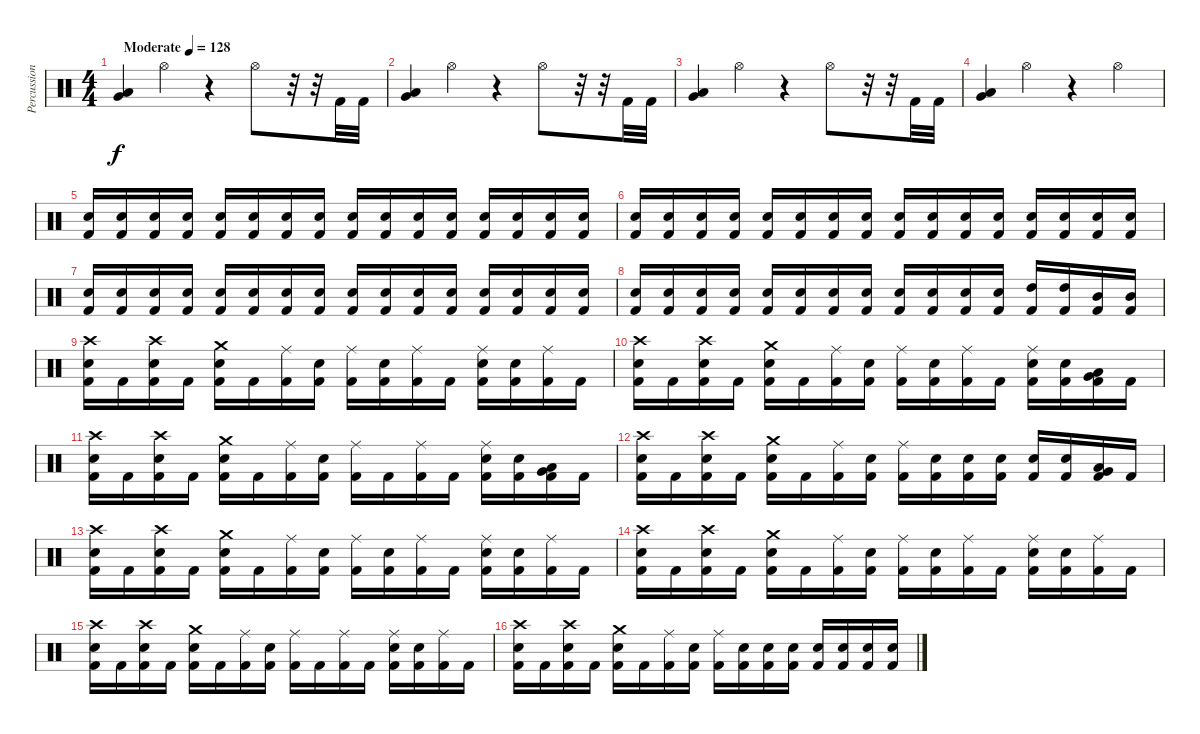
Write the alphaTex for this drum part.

\track ("Percussion" "Percussion") {instrument percussion}
\staff {score}
\articulation defaults
\ts (4 4)
\tempo (128 "Moderate")
\clef neutral
\ks c
("Low Tom (hit)" "Very Low Tom (hit)").4{dy f} "Hi-Hat (open)".4 r.4 "Hi-Hat (open)".8 r.32 r.32 "Kick (hit) 2".32 "Kick (hit) 2".32 |
("Low Tom (hit)" "Very Low Tom (hit)").4 "Hi-Hat (open)".4 r.4 "Hi-Hat (open)".8 r.32 r.32 "Kick (hit) 2".32 "Kick (hit) 2".32 |
("Low Tom (hit)" "Very Low Tom (hit)").4 "Hi-Hat (open)".4 r.4 "Hi-Hat (open)".8 r.32 r.32 "Kick (hit) 2".32 "Kick (hit) 2".32 |
("Low Tom (hit)" "Very Low Tom (hit)").4 "Hi-Hat (open)".4 r.4 "Hi-Hat (open)".4 |
("Snare (hit) 2" "Kick (hit) 2").16{volume 8} ("Snare (hit) 2" "Kick (hit) 2").16 ("Snare (hit) 2" "Kick (hit) 2").16 ("Snare (hit) 2" "Kick (hit) 2").16 ("Snare (hit) 2" "Kick (hit) 2").16 ("Snare (hit) 2" "Kick (hit) 2").16 ("Snare (hit) 2" "Kick (hit) 2").16 ("Snare (hit) 2" "Kick (hit) 2").16 ("Snare (hit) 2" "Kick (hit) 2").16 ("Snare (hit) 2" "Kick (hit) 2").16 ("Snare (hit) 2" "Kick (hit) 2").16{volume 9} ("Snare (hit) 2" "Kick (hit) 2").16 ("Snare (hit) 2" "Kick (hit) 2").16 ("Snare (hit) 2" "Kick (hit) 2").16 ("Snare (hit) 2" "Kick (hit) 2").16 ("Snare (hit) 2" "Kick (hit) 2").16 |
("Snare (hit) 2" "Kick (hit) 2").16 ("Snare (hit) 2" "Kick (hit) 2").16 ("Snare (hit) 2" "Kick (hit) 2").16 ("Snare (hit) 2" "Kick (hit) 2").16 ("Snare (hit) 2" "Kick (hit) 2").16{volume 10} ("Snare (hit) 2" "Kick (hit) 2").16 ("Snare (hit) 2" "Kick (hit) 2").16 ("Snare (hit) 2" "Kick (hit) 2").16 ("Snare (hit) 2" "Kick (hit) 2").16 ("Snare (hit) 2" "Kick (hit) 2").16 ("Snare (hit) 2" "Kick (hit) 2").16 ("Snare (hit) 2" "Kick (hit) 2").16 ("Snare (hit) 2" "Kick (hit) 2").16 ("Snare (hit) 2" "Kick (hit) 2").16 ("Snare (hit) 2" "Kick (hit) 2").16{volume 11} ("Snare (hit) 2" "Kick (hit) 2").16 |
("Snare (hit) 2" "Kick (hit) 2").16 ("Snare (hit) 2" "Kick (hit) 2").16 ("Snare (hit) 2" "Kick (hit) 2").16 ("Snare (hit) 2" "Kick (hit) 2").16 ("Snare (hit) 2" "Kick (hit) 2").16 ("Snare (hit) 2" "Kick (hit) 2").16 ("Snare (hit) 2" "Kick (hit) 2").16 ("Snare (hit) 2" "Kick (hit) 2").16 ("Snare (hit) 2" "Kick (hit) 2").16{volume 13} ("Snare (hit) 2" "Kick (hit) 2").16 ("Snare (hit) 2" "Kick (hit) 2").16 ("Snare (hit) 2" "Kick (hit) 2").16 ("Snare (hit) 2" "Kick (hit) 2").16 ("Snare (hit) 2" "Kick (hit) 2").16 ("Snare (hit) 2" "Kick (hit) 2").16 ("Snare (hit) 2" "Kick (hit) 2").16 |
("Snare (hit) 2" "Kick (hit) 2").16{volume 16} ("Snare (hit) 2" "Kick (hit) 2").16 ("Snare (hit) 2" "Kick (hit) 2").16 ("Snare (hit) 2" "Kick (hit) 2").16 ("Snare (hit) 2" "Kick (hit) 2").16 ("Snare (hit) 2" "Kick (hit) 2").16 ("Snare (hit) 2" "Kick (hit) 2").16 ("Snare (hit) 2" "Kick (hit) 2").16 ("Snare (hit) 2" "Kick (hit) 2").16 ("Snare (hit) 2" "Kick (hit) 2").16 ("Snare (hit) 2" "Kick (hit) 2").16 ("Snare (hit) 2" "Kick (hit) 2").16 ("High Tom (hit)" "Kick (hit) 2").16 ("High Tom (hit)" "Kick (hit) 2").16 ("Mid Tom (hit)" "Kick (hit) 2").16 ("Mid Tom (hit)" "Kick (hit) 2").16 |
("Crash high (hit)" "Snare (hit) 2" "Kick (hit) 2").16 "Kick (hit) 2".16 ("Crash high (hit)" "Snare (hit) 2" "Kick (hit) 2").16 "Kick (hit) 2".16 ("Crash medium (hit)" "Snare (hit) 2" "Kick (hit) 2").16 "Kick (hit) 2".16 ("Ride (middle)" "Kick (hit) 2").16 ("Snare (hit) 2" "Kick (hit) 2").16 ("Ride (middle)" "Kick (hit) 2").16 ("Snare (hit) 2" "Kick (hit) 2").16 ("Ride (middle)" "Kick (hit) 2").16 "Kick (hit) 2".16 ("Ride (middle)" "Snare (hit) 2" "Kick (hit) 2").16 ("Snare (hit) 2" "Kick (hit) 2").16 ("Ride (middle)" "Kick (hit) 2").16 "Kick (hit) 2".16 |
("Crash high (hit)" "Snare (hit) 2" "Kick (hit) 2").16 "Kick (hit) 2".16 ("Crash high (hit)" "Snare (hit) 2" "Kick (hit) 2").16 "Kick (hit) 2".16 ("Crash medium (hit)" "Snare (hit) 2" "Kick (hit) 2").16 "Kick (hit) 2".16 ("Ride (middle)" "Kick (hit) 2").16 ("Snare (hit) 2" "Kick (hit) 2").16 ("Ride (middle)" "Kick (hit) 2").16 ("Snare (hit) 2" "Kick (hit) 2").16 ("Ride (middle)" "Kick (hit) 2").16 "Kick (hit) 2".16 ("Ride (middle)" "Snare (hit) 2" "Kick (hit) 2").16 ("Snare (hit) 2" "Kick (hit) 2").16 ("Very Low Tom (hit)" "Low Tom (hit)" "Kick (hit) 2").16 "Kick (hit) 2".16 |
("Crash high (hit)" "Snare (hit) 2" "Kick (hit) 2").16 "Kick (hit) 2".16 ("Crash high (hit)" "Snare (hit) 2" "Kick (hit) 2").16 "Kick (hit) 2".16 ("Crash medium (hit)" "Snare (hit) 2" "Kick (hit) 2").16 "Kick (hit) 2".16 ("Ride (middle)" "Kick (hit) 2").16 ("Snare (hit) 2" "Kick (hit) 2").16 ("Ride (middle)" "Kick (hit) 2").16 "Kick (hit) 2".16 ("Ride (middle)" "Kick (hit) 2").16 "Kick (hit) 2".16 ("Ride (middle)" "Snare (hit) 2" "Kick (hit) 2").16 ("Snare (hit) 2" "Kick (hit) 2").16 ("Very Low Tom (hit)" "Low Tom (hit)" "Kick (hit) 2").16 "Kick (hit) 2".16 |
("Crash high (hit)" "Snare (hit) 2" "Kick (hit) 2").16 "Kick (hit) 2".16 ("Crash high (hit)" "Snare (hit) 2" "Kick (hit) 2").16 "Kick (hit) 2".16 ("Crash medium (hit)" "Snare (hit) 2" "Kick (hit) 2").16 "Kick (hit) 2".16 ("Ride (middle)" "Kick (hit) 2").16 ("Snare (hit) 2" "Kick (hit) 2").16 ("Ride (middle)" "Kick (hit) 2").16 ("Snare (hit) 2" "Kick (hit) 2").16 ("Snare (hit) 2" "Kick (hit) 2").16 ("Snare (hit) 2" "Kick (hit) 2").16 ("Snare (hit) 2" "Kick (hit) 2").16 ("Snare (hit) 2" "Kick (hit) 2").16 ("Very Low Tom (hit)" "Low Tom (hit)" "Kick (hit) 2").16 "Kick (hit) 2".16 |
("Crash high (hit)" "Snare (hit) 2" "Kick (hit) 2").16 "Kick (hit) 2".16 ("Crash high (hit)" "Snare (hit) 2" "Kick (hit) 2").16 "Kick (hit) 2".16 ("Crash medium (hit)" "Snare (hit) 2" "Kick (hit) 2").16 "Kick (hit) 2".16 ("Ride (middle)" "Kick (hit) 2").16 ("Snare (hit) 2" "Kick (hit) 2").16 ("Ride (middle)" "Kick (hit) 2").16 ("Snare (hit) 2" "Kick (hit) 2").16 ("Ride (middle)" "Kick (hit) 2").16 "Kick (hit) 2".16 ("Ride (middle)" "Snare (hit) 2" "Kick (hit) 2").16 ("Snare (hit) 2" "Kick (hit) 2").16 ("Ride (middle)" "Kick (hit) 2").16 "Kick (hit) 2".16 |
("Crash high (hit)" "Snare (hit) 2" "Kick (hit) 2").16 "Kick (hit) 2".16 ("Crash high (hit)" "Snare (hit) 2" "Kick (hit) 2").16 "Kick (hit) 2".16 ("Crash medium (hit)" "Snare (hit) 2" "Kick (hit) 2").16 "Kick (hit) 2".16 ("Ride (middle)" "Kick (hit) 2").16 ("Snare (hit) 2" "Kick (hit) 2").16 ("Ride (middle)" "Kick (hit) 2").16 ("Snare (hit) 2" "Kick (hit) 2").16 ("Ride (middle)" "Kick (hit) 2").16 "Kick (hit) 2".16 ("Ride (middle)" "Snare (hit) 2" "Kick (hit) 2").16 ("Snare (hit) 2" "Kick (hit) 2").16 ("Ride (middle)" "Kick (hit) 2").16 "Kick (hit) 2".16 |
("Crash high (hit)" "Snare (hit) 2" "Kick (hit) 2").16 "Kick (hit) 2".16 ("Crash high (hit)" "Snare (hit) 2" "Kick (hit) 2").16 "Kick (hit) 2".16 ("Crash medium (hit)" "Snare (hit) 2" "Kick (hit) 2").16 "Kick (hit) 2".16 ("Ride (middle)" "Kick (hit) 2").16 ("Snare (hit) 2" "Kick (hit) 2").16 ("Ride (middle)" "Kick (hit) 2").16 "Kick (hit) 2".16 ("Ride (middle)" "Kick (hit) 2").16 "Kick (hit) 2".16 ("Ride (middle)" "Snare (hit) 2" "Kick (hit) 2").16 ("Snare (hit) 2" "Kick (hit) 2").16 ("Ride (middle)" "Kick (hit) 2").16 "Kick (hit) 2".16 |
("Crash high (hit)" "Snare (hit) 2" "Kick (hit) 2").16 "Kick (hit) 2".16 ("Crash high (hit)" "Snare (hit) 2" "Kick (hit) 2").16 "Kick (hit) 2".16 ("Crash medium (hit)" "Snare (hit) 2" "Kick (hit) 2").16 "Kick (hit) 2".16 ("Ride (middle)" "Kick (hit) 2").16 ("Snare (hit) 2" "Kick (hit) 2").16 ("Ride (middle)" "Kick (hit) 2").16 ("Snare (hit) 2" "Kick (hit) 2").16 ("Snare (hit) 2" "Kick (hit) 2").16 ("Snare (hit) 2" "Kick (hit) 2").16 ("Snare (hit) 2" "Kick (hit) 2").16 ("Snare (hit) 2" "Kick (hit) 2").16 ("Snare (hit) 2" "Kick (hit) 2").16 ("Snare (hit) 2" "Kick (hit) 2").16
